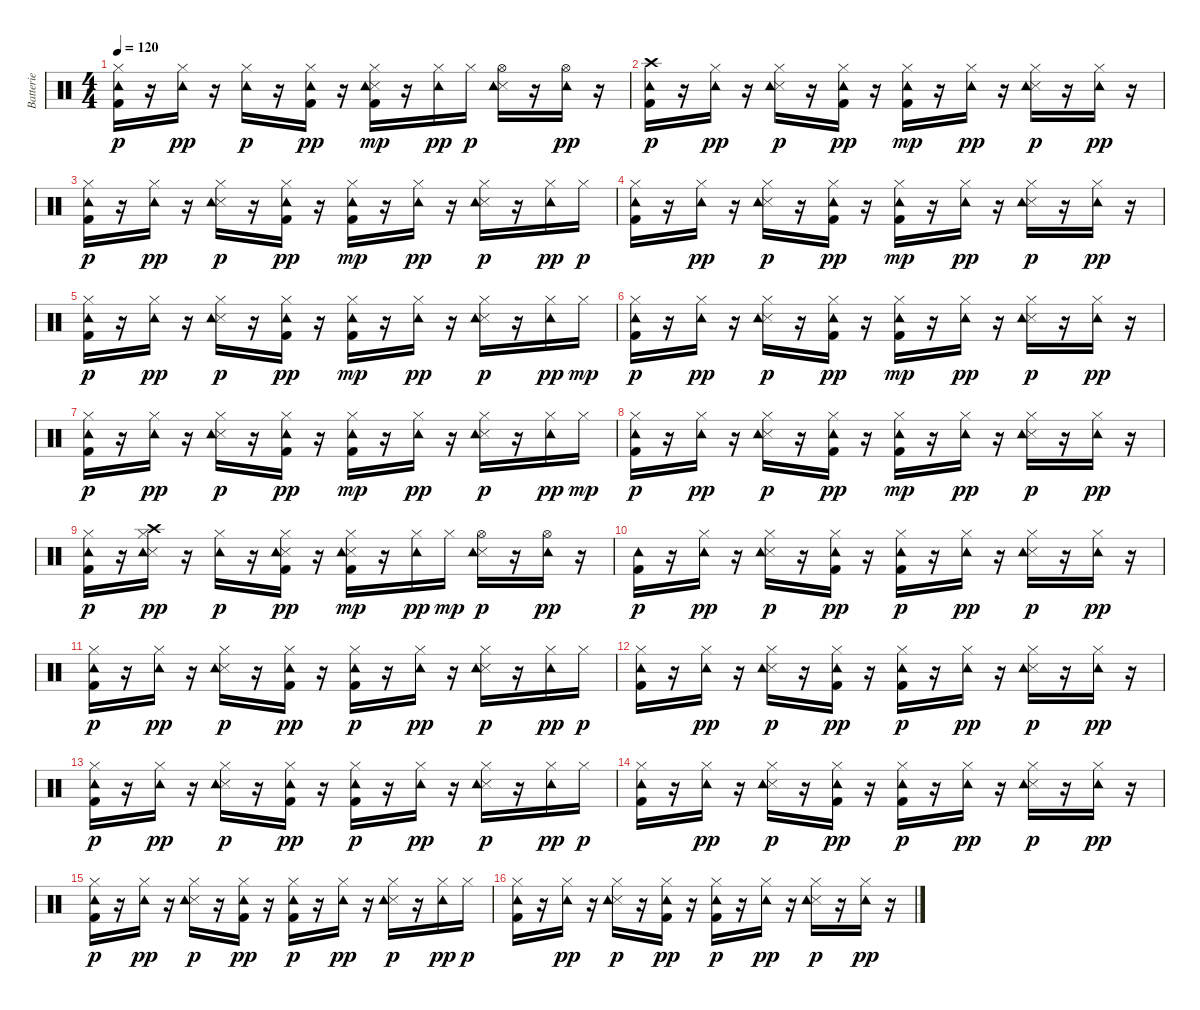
\track ("Batterie" "Batterie") {instrument percussion}
\staff {score}
\articulation defaults
\ts (4 4)
\tempo 120
\clef neutral
\ks c
("Kick (hit) 2" "Hi-Hat (closed)" "Tambourine (hit)").16{dy p} r.16 ("Hi-Hat (closed)" "Tambourine (hit)").16{dy pp} r.16 ("Hi-Hat (closed)" "Tambourine (hit)").16{dy p} r.16 ("Kick (hit) 2" "Hi-Hat (closed)" "Tambourine (hit)").16{dy pp} r.16 ("Kick (hit) 2" "Hi-Hat (closed)" "Snare (side stick) 3" "Tambourine (hit)").16{dy mp} r.16 ("Hi-Hat (closed)" "Tambourine (hit)").16{dy pp} "Hi-Hat (closed)".16{dy p} ("Hi-Hat (open)" "Snare (side stick) 3" "Tambourine (hit)").16 r.16 ("Hi-Hat (open)" "Tambourine (hit)").16{dy pp} r.16 |
("Kick (hit) 2" "Crash high (hit)" "Tambourine (hit)").16{dy p} r.16 ("Hi-Hat (closed)" "Tambourine (hit)").16{dy pp} r.16 ("Hi-Hat (closed)" "Snare (side stick) 3" "Tambourine (hit)").16{dy p} r.16 ("Kick (hit) 2" "Hi-Hat (closed)" "Tambourine (hit)").16{dy pp} r.16 ("Kick (hit) 2" "Hi-Hat (closed)" "Tambourine (hit)").16{dy mp} r.16 ("Hi-Hat (closed)" "Tambourine (hit)").16{dy pp} r.16 ("Hi-Hat (closed)" "Snare (side stick) 3" "Tambourine (hit)").16{dy p} r.16 ("Hi-Hat (closed)" "Tambourine (hit)").16{dy pp} r.16 |
("Kick (hit) 2" "Hi-Hat (closed)" "Tambourine (hit)").16{dy p} r.16 ("Hi-Hat (closed)" "Tambourine (hit)").16{dy pp} r.16 ("Hi-Hat (closed)" "Snare (side stick) 3" "Tambourine (hit)").16{dy p} r.16 ("Kick (hit) 2" "Hi-Hat (closed)" "Tambourine (hit)").16{dy pp} r.16 ("Kick (hit) 2" "Hi-Hat (closed)" "Tambourine (hit)").16{dy mp} r.16 ("Hi-Hat (closed)" "Tambourine (hit)").16{dy pp} r.16 ("Hi-Hat (closed)" "Snare (side stick) 3" "Tambourine (hit)").16{dy p} r.16 ("Hi-Hat (closed)" "Tambourine (hit)").16{dy pp} "Hi-Hat (closed)".16{dy p} |
("Kick (hit) 2" "Hi-Hat (closed)" "Tambourine (hit)").16 r.16 ("Hi-Hat (closed)" "Tambourine (hit)").16{dy pp} r.16 ("Hi-Hat (closed)" "Snare (side stick) 3" "Tambourine (hit)").16{dy p} r.16 ("Kick (hit) 2" "Hi-Hat (closed)" "Tambourine (hit)").16{dy pp} r.16 ("Kick (hit) 2" "Hi-Hat (closed)" "Tambourine (hit)").16{dy mp} r.16 ("Hi-Hat (closed)" "Tambourine (hit)").16{dy pp} r.16 ("Hi-Hat (closed)" "Snare (side stick) 3" "Tambourine (hit)").16{dy p} r.16 ("Hi-Hat (closed)" "Tambourine (hit)").16{dy pp} r.16 |
("Kick (hit) 2" "Hi-Hat (closed)" "Tambourine (hit)").16{dy p} r.16 ("Hi-Hat (closed)" "Tambourine (hit)").16{dy pp} r.16 ("Hi-Hat (closed)" "Snare (side stick) 3" "Tambourine (hit)").16{dy p} r.16 ("Kick (hit) 2" "Hi-Hat (closed)" "Tambourine (hit)").16{dy pp} r.16 ("Kick (hit) 2" "Hi-Hat (closed)" "Tambourine (hit)").16{dy mp} r.16 ("Hi-Hat (closed)" "Tambourine (hit)").16{dy pp} r.16 ("Hi-Hat (closed)" "Snare (side stick) 3" "Tambourine (hit)").16{dy p} r.16 ("Hi-Hat (closed)" "Tambourine (hit)").16{dy pp} "Hi-Hat (closed)".16{dy mp} |
("Kick (hit) 2" "Hi-Hat (closed)" "Tambourine (hit)").16{dy p} r.16 ("Hi-Hat (closed)" "Tambourine (hit)").16{dy pp} r.16 ("Hi-Hat (closed)" "Snare (side stick) 3" "Tambourine (hit)").16{dy p} r.16 ("Kick (hit) 2" "Hi-Hat (closed)" "Tambourine (hit)").16{dy pp} r.16 ("Kick (hit) 2" "Hi-Hat (closed)" "Tambourine (hit)").16{dy mp} r.16 ("Hi-Hat (closed)" "Tambourine (hit)").16{dy pp} r.16 ("Hi-Hat (closed)" "Snare (side stick) 3" "Tambourine (hit)").16{dy p} r.16 ("Hi-Hat (closed)" "Tambourine (hit)").16{dy pp} r.16 |
("Kick (hit) 2" "Hi-Hat (closed)" "Tambourine (hit)").16{dy p} r.16 ("Hi-Hat (closed)" "Tambourine (hit)").16{dy pp} r.16 ("Hi-Hat (closed)" "Snare (side stick) 3" "Tambourine (hit)").16{dy p} r.16 ("Kick (hit) 2" "Hi-Hat (closed)" "Tambourine (hit)").16{dy pp} r.16 ("Kick (hit) 2" "Hi-Hat (closed)" "Tambourine (hit)").16{dy mp} r.16 ("Hi-Hat (closed)" "Tambourine (hit)").16{dy pp} r.16 ("Hi-Hat (closed)" "Snare (side stick) 3" "Tambourine (hit)").16{dy p} r.16 ("Hi-Hat (closed)" "Tambourine (hit)").16{dy pp} "Hi-Hat (closed)".16{dy mp} |
("Kick (hit) 2" "Hi-Hat (closed)" "Tambourine (hit)").16{dy p} r.16 ("Hi-Hat (closed)" "Tambourine (hit)").16{dy pp} r.16 ("Hi-Hat (closed)" "Snare (side stick) 3" "Tambourine (hit)").16{dy p} r.16 ("Kick (hit) 2" "Hi-Hat (closed)" "Tambourine (hit)").16{dy pp} r.16 ("Kick (hit) 2" "Hi-Hat (closed)" "Tambourine (hit)").16{dy mp} r.16 ("Hi-Hat (closed)" "Tambourine (hit)").16{dy pp} r.16 ("Hi-Hat (closed)" "Snare (side stick) 3" "Tambourine (hit)").16{dy p} r.16 ("Hi-Hat (closed)" "Tambourine (hit)").16{dy pp} r.16 |
("Kick (hit) 2" "Hi-Hat (closed)" "Tambourine (hit)").16{dy p} r.16 ("Hi-Hat (closed)" "Crash high (hit)" "Snare (side stick) 3" "Tambourine (hit)").16{dy pp} r.16 ("Hi-Hat (closed)" "Tambourine (hit)").16{dy p} r.16 ("Kick (hit) 2" "Hi-Hat (closed)" "Snare (side stick) 3" "Tambourine (hit)").16{dy pp} r.16 ("Kick (hit) 2" "Hi-Hat (closed)" "Snare (side stick) 3" "Tambourine (hit)").16{dy mp} r.16 ("Hi-Hat (closed)" "Tambourine (hit)").16{dy pp} "Hi-Hat (closed)".16{dy mp} ("Hi-Hat (open)" "Snare (side stick) 3" "Tambourine (hit)").16{dy p} r.16 ("Hi-Hat (open)" "Tambourine (hit)").16{dy pp} r.16 |
("Kick (hit) 2" "Tambourine (hit)").16{dy p} r.16 ("Hi-Hat (closed)" "Tambourine (hit)").16{dy pp} r.16 ("Hi-Hat (closed)" "Snare (side stick) 3" "Tambourine (hit)").16{dy p} r.16 ("Kick (hit) 2" "Hi-Hat (closed)" "Tambourine (hit)").16{dy pp} r.16 ("Kick (hit) 2" "Hi-Hat (closed)" "Tambourine (hit)").16{dy p} r.16 ("Hi-Hat (closed)" "Tambourine (hit)").16{dy pp} r.16 ("Hi-Hat (closed)" "Snare (side stick) 3" "Tambourine (hit)").16{dy p} r.16 ("Hi-Hat (closed)" "Tambourine (hit)").16{dy pp} r.16 |
("Kick (hit) 2" "Hi-Hat (closed)" "Tambourine (hit)").16{dy p} r.16 ("Hi-Hat (closed)" "Tambourine (hit)").16{dy pp} r.16 ("Hi-Hat (closed)" "Snare (side stick) 3" "Tambourine (hit)").16{dy p} r.16 ("Kick (hit) 2" "Hi-Hat (closed)" "Tambourine (hit)").16{dy pp} r.16 ("Kick (hit) 2" "Hi-Hat (closed)" "Tambourine (hit)").16{dy p} r.16 ("Hi-Hat (closed)" "Tambourine (hit)").16{dy pp} r.16 ("Hi-Hat (closed)" "Snare (side stick) 3" "Tambourine (hit)").16{dy p} r.16 ("Hi-Hat (closed)" "Tambourine (hit)").16{dy pp} "Hi-Hat (closed)".16{dy p} |
("Kick (hit) 2" "Hi-Hat (closed)" "Tambourine (hit)").16 r.16 ("Hi-Hat (closed)" "Tambourine (hit)").16{dy pp} r.16 ("Hi-Hat (closed)" "Snare (side stick) 3" "Tambourine (hit)").16{dy p} r.16 ("Kick (hit) 2" "Hi-Hat (closed)" "Tambourine (hit)").16{dy pp} r.16 ("Kick (hit) 2" "Hi-Hat (closed)" "Tambourine (hit)").16{dy p} r.16 ("Hi-Hat (closed)" "Tambourine (hit)").16{dy pp} r.16 ("Hi-Hat (closed)" "Snare (side stick) 3" "Tambourine (hit)").16{dy p} r.16 ("Hi-Hat (closed)" "Tambourine (hit)").16{dy pp} r.16 |
("Kick (hit) 2" "Hi-Hat (closed)" "Tambourine (hit)").16{dy p} r.16 ("Hi-Hat (closed)" "Tambourine (hit)").16{dy pp} r.16 ("Hi-Hat (closed)" "Snare (side stick) 3" "Tambourine (hit)").16{dy p} r.16 ("Kick (hit) 2" "Hi-Hat (closed)" "Tambourine (hit)").16{dy pp} r.16 ("Kick (hit) 2" "Hi-Hat (closed)" "Tambourine (hit)").16{dy p} r.16 ("Hi-Hat (closed)" "Tambourine (hit)").16{dy pp} r.16 ("Hi-Hat (closed)" "Snare (side stick) 3" "Tambourine (hit)").16{dy p} r.16 ("Hi-Hat (closed)" "Tambourine (hit)").16{dy pp} "Hi-Hat (closed)".16{dy p} |
("Kick (hit) 2" "Hi-Hat (closed)" "Tambourine (hit)").16 r.16 ("Hi-Hat (closed)" "Tambourine (hit)").16{dy pp} r.16 ("Hi-Hat (closed)" "Snare (side stick) 3" "Tambourine (hit)").16{dy p} r.16 ("Kick (hit) 2" "Hi-Hat (closed)" "Tambourine (hit)").16{dy pp} r.16 ("Kick (hit) 2" "Hi-Hat (closed)" "Tambourine (hit)").16{dy p} r.16 ("Hi-Hat (closed)" "Tambourine (hit)").16{dy pp} r.16 ("Hi-Hat (closed)" "Snare (side stick) 3" "Tambourine (hit)").16{dy p} r.16 ("Hi-Hat (closed)" "Tambourine (hit)").16{dy pp} r.16 |
("Kick (hit) 2" "Hi-Hat (closed)" "Tambourine (hit)").16{dy p} r.16 ("Hi-Hat (closed)" "Tambourine (hit)").16{dy pp} r.16 ("Hi-Hat (closed)" "Snare (side stick) 3" "Tambourine (hit)").16{dy p} r.16 ("Kick (hit) 2" "Hi-Hat (closed)" "Tambourine (hit)").16{dy pp} r.16 ("Kick (hit) 2" "Hi-Hat (closed)" "Tambourine (hit)").16{dy p} r.16 ("Hi-Hat (closed)" "Tambourine (hit)").16{dy pp} r.16 ("Hi-Hat (closed)" "Snare (side stick) 3" "Tambourine (hit)").16{dy p} r.16 ("Hi-Hat (closed)" "Tambourine (hit)").16{dy pp} "Hi-Hat (closed)".16{dy p} |
("Kick (hit) 2" "Hi-Hat (closed)" "Tambourine (hit)").16 r.16 ("Hi-Hat (closed)" "Tambourine (hit)").16{dy pp} r.16 ("Hi-Hat (closed)" "Snare (side stick) 3" "Tambourine (hit)").16{dy p} r.16 ("Kick (hit) 2" "Hi-Hat (closed)" "Tambourine (hit)").16{dy pp} r.16 ("Kick (hit) 2" "Hi-Hat (closed)" "Tambourine (hit)").16{dy p} r.16 ("Hi-Hat (closed)" "Tambourine (hit)").16{dy pp} r.16 ("Hi-Hat (closed)" "Snare (side stick) 3" "Tambourine (hit)").16{dy p} r.16 ("Hi-Hat (closed)" "Tambourine (hit)").16{dy pp} r.16
